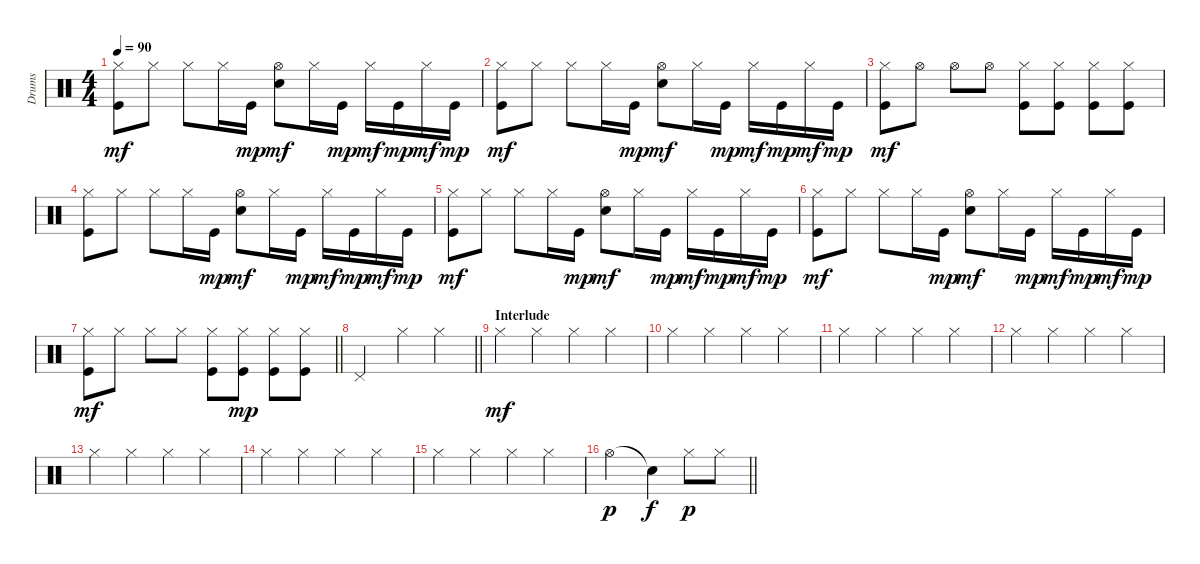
\track ("Drums" "Drums") {instrument percussion}
\staff {score}
\articulation defaults
\ts (4 4)
\tempo 90
\clef neutral
\ks c
("Kick (hit)" "Hi-Hat (closed)").8{dy mf} "Hi-Hat (closed)".8 "Hi-Hat (closed)".8 "Hi-Hat (closed)".16 "Kick (hit)".16{dy mp} ("Electric Snare (hit)" "Hi-Hat (open)").8{dy mf} "Hi-Hat (closed)".16 "Kick (hit)".16{dy mp} "Hi-Hat (closed)".16{dy mf} "Kick (hit)".16{dy mp} "Hi-Hat (closed)".16{dy mf} "Kick (hit)".16{dy mp} |
("Kick (hit)" "Hi-Hat (closed)").8{dy mf} "Hi-Hat (closed)".8 "Hi-Hat (closed)".8 "Hi-Hat (closed)".16 "Kick (hit)".16{dy mp} ("Electric Snare (hit)" "Hi-Hat (open)").8{dy mf} "Hi-Hat (closed)".16 "Kick (hit)".16{dy mp} "Hi-Hat (closed)".16{dy mf} "Kick (hit)".16{dy mp} "Hi-Hat (closed)".16{dy mf} "Kick (hit)".16{dy mp} |
("Kick (hit)" "Hi-Hat (closed)").8{dy mf} "Hi-Hat (open)".8 "Hi-Hat (open)".8 "Hi-Hat (open)".8 ("Kick (hit)" "Hi-Hat (closed)").8 ("Kick (hit)" "Hi-Hat (closed)").8 ("Kick (hit)" "Hi-Hat (closed)").8 ("Kick (hit)" "Hi-Hat (closed)").8 |
("Kick (hit)" "Hi-Hat (closed)").8 "Hi-Hat (closed)".8 "Hi-Hat (closed)".8 "Hi-Hat (closed)".16 "Kick (hit)".16{dy mp} ("Electric Snare (hit)" "Hi-Hat (open)").8{dy mf} "Hi-Hat (closed)".16 "Kick (hit)".16{dy mp} "Hi-Hat (closed)".16{dy mf} "Kick (hit)".16{dy mp} "Hi-Hat (closed)".16{dy mf} "Kick (hit)".16{dy mp} |
("Kick (hit)" "Hi-Hat (closed)").8{dy mf} "Hi-Hat (closed)".8 "Hi-Hat (closed)".8 "Hi-Hat (closed)".16 "Kick (hit)".16{dy mp} ("Electric Snare (hit)" "Hi-Hat (open)").8{dy mf} "Hi-Hat (closed)".16 "Kick (hit)".16{dy mp} "Hi-Hat (closed)".16{dy mf} "Kick (hit)".16{dy mp} "Hi-Hat (closed)".16{dy mf} "Kick (hit)".16{dy mp} |
("Kick (hit)" "Hi-Hat (closed)").8{dy mf} "Hi-Hat (closed)".8 "Hi-Hat (closed)".8 "Hi-Hat (closed)".16 "Kick (hit)".16{dy mp} ("Electric Snare (hit)" "Hi-Hat (open)").8{dy mf} "Hi-Hat (closed)".16 "Kick (hit)".16{dy mp} "Hi-Hat (closed)".16{dy mf} "Kick (hit)".16{dy mp} "Hi-Hat (closed)".16{dy mf} "Kick (hit)".16{dy mp} |
\barLineRight lightlight
("Kick (hit)" "Hi-Hat (closed)").8{dy mf} "Hi-Hat (closed)".8 "Hi-Hat (closed)".8 "Hi-Hat (closed)".8 ("Kick (hit)" "Hi-Hat (closed)").8 ("Kick (hit)" "Hi-Hat (closed)").8{dy mp} ("Kick (hit)" "Hi-Hat (closed)").8 ("Kick (hit)" "Hi-Hat (closed)").8 |
\barLineRight lightlight "Pedal Hi-Hat (hit)".2 "Hi-Hat (closed)".4 "Hi-Hat (closed)".4
|
\section ("" "Interlude")
"Hi-Hat (closed)".4{dy mf} "Hi-Hat (closed)".4 "Hi-Hat (closed)".4 "Hi-Hat (closed)".4 |
"Hi-Hat (closed)".4 "Hi-Hat (closed)".4 "Hi-Hat (closed)".4 "Hi-Hat (closed)".4 |
"Hi-Hat (closed)".4 "Hi-Hat (closed)".4 "Hi-Hat (closed)".4 "Hi-Hat (closed)".4 |
"Hi-Hat (closed)".4 "Hi-Hat (closed)".4 "Hi-Hat (closed)".4 "Hi-Hat (closed)".4 |
"Hi-Hat (closed)".4 "Hi-Hat (closed)".4 "Hi-Hat (closed)".4 "Hi-Hat (closed)".4 |
"Hi-Hat (closed)".4 "Hi-Hat (closed)".4 "Hi-Hat (closed)".4 "Hi-Hat (closed)".4 |
"Hi-Hat (closed)".4 "Hi-Hat (closed)".4 "Hi-Hat (closed)".4 "Hi-Hat (closed)".4 |
\barLineRight lightlight "Hi-Hat (open)".2{dy p} "Snare (hit)"{t}.4{dy f} "Hi-Hat (closed)".8{dy p} "Hi-Hat (closed)".8
